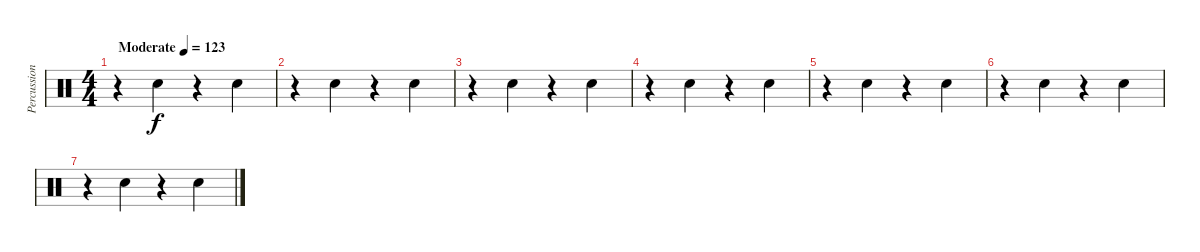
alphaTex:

\track ("Percussion" "Percussion") {instrument percussion}
\staff {score}
\articulation defaults
\ts (4 4)
\tempo (123 "Moderate")
\clef neutral
\ks c
r.4{dy f} "Hand Clap (hit)".4 r.4 "Hand Clap (hit)".4 |
r.4 "Hand Clap (hit)".4 r.4 "Hand Clap (hit)".4 |
r.4 "Hand Clap (hit)".4 r.4 "Hand Clap (hit)".4 |
r.4 "Hand Clap (hit)".4 r.4 "Hand Clap (hit)".4 |
r.4 "Hand Clap (hit)".4 r.4 "Hand Clap (hit)".4 |
r.4 "Hand Clap (hit)".4 r.4 "Hand Clap (hit)".4 |
r.4 "Hand Clap (hit)".4 r.4 "Hand Clap (hit)".4
